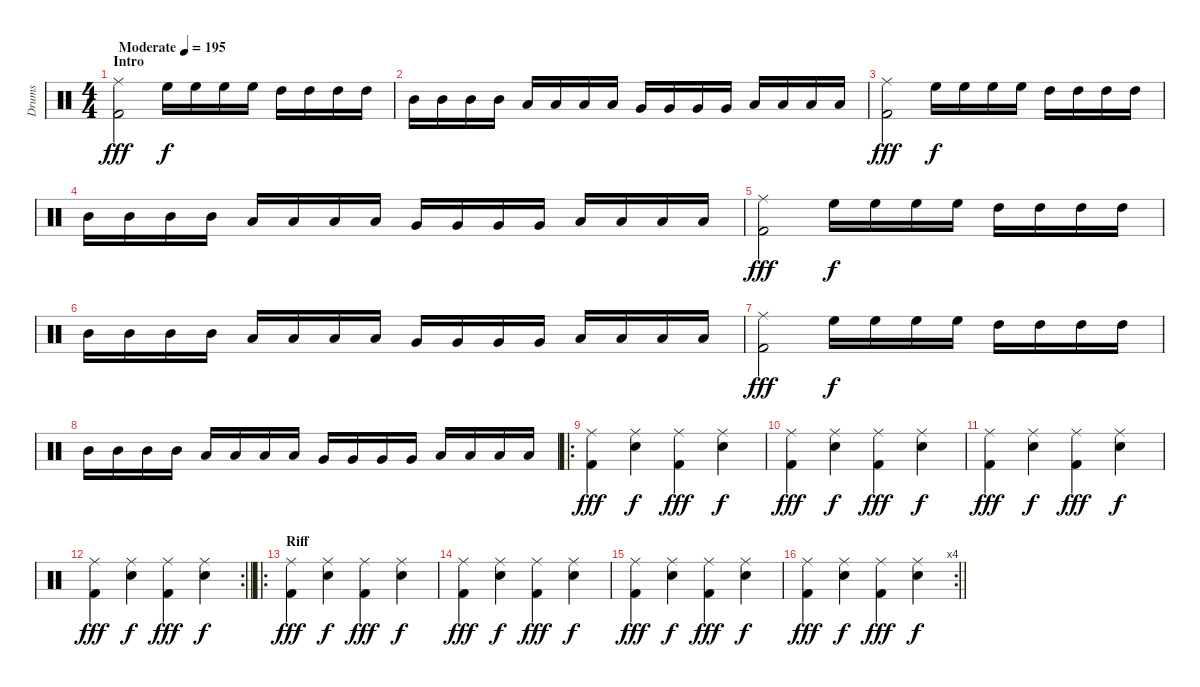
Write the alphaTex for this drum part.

\track ("Drums" "Drums") {instrument percussion}
\staff {score}
\articulation defaults
\ts (4 4)
\section ("" "Intro")
\tempo (195 "Moderate")
\clef neutral
\ks c
("Ride (middle)" "Kick (hit) 2").2{dy fff} "High Floor Tom (hit)".16{dy f} "High Floor Tom (hit)".16 "High Floor Tom (hit)".16 "High Floor Tom (hit)".16 "High Tom (hit)".16 "High Tom (hit)".16 "High Tom (hit)".16 "High Tom (hit)".16 |
"Mid Tom (hit)".16 "Mid Tom (hit)".16 "Mid Tom (hit)".16 "Mid Tom (hit)".16 "Low Tom (hit)".16 "Low Tom (hit)".16 "Low Tom (hit)".16 "Low Tom (hit)".16 "Very Low Tom (hit)".16 "Very Low Tom (hit)".16 "Very Low Tom (hit)".16 "Very Low Tom (hit)".16 "Low Floor Tom (hit)".16 "Low Floor Tom (hit)".16 "Low Floor Tom (hit)".16 "Low Floor Tom (hit)".16 |
("Ride (middle)" "Kick (hit) 2").2{dy fff} "High Floor Tom (hit)".16{dy f} "High Floor Tom (hit)".16 "High Floor Tom (hit)".16 "High Floor Tom (hit)".16 "High Tom (hit)".16 "High Tom (hit)".16 "High Tom (hit)".16 "High Tom (hit)".16 |
"Mid Tom (hit)".16 "Mid Tom (hit)".16 "Mid Tom (hit)".16 "Mid Tom (hit)".16 "Low Tom (hit)".16 "Low Tom (hit)".16 "Low Tom (hit)".16 "Low Tom (hit)".16 "Very Low Tom (hit)".16 "Very Low Tom (hit)".16 "Very Low Tom (hit)".16 "Very Low Tom (hit)".16 "Low Floor Tom (hit)".16 "Low Floor Tom (hit)".16 "Low Floor Tom (hit)".16 "Low Floor Tom (hit)".16 |
("Ride (middle)" "Kick (hit) 2").2{dy fff} "High Floor Tom (hit)".16{dy f} "High Floor Tom (hit)".16 "High Floor Tom (hit)".16 "High Floor Tom (hit)".16 "High Tom (hit)".16 "High Tom (hit)".16 "High Tom (hit)".16 "High Tom (hit)".16 |
"Mid Tom (hit)".16 "Mid Tom (hit)".16 "Mid Tom (hit)".16 "Mid Tom (hit)".16 "Low Tom (hit)".16 "Low Tom (hit)".16 "Low Tom (hit)".16 "Low Tom (hit)".16 "Very Low Tom (hit)".16 "Very Low Tom (hit)".16 "Very Low Tom (hit)".16 "Very Low Tom (hit)".16 "Low Floor Tom (hit)".16 "Low Floor Tom (hit)".16 "Low Floor Tom (hit)".16 "Low Floor Tom (hit)".16 |
("Ride (middle)" "Kick (hit) 2").2{dy fff} "High Floor Tom (hit)".16{dy f} "High Floor Tom (hit)".16 "High Floor Tom (hit)".16 "High Floor Tom (hit)".16 "High Tom (hit)".16 "High Tom (hit)".16 "High Tom (hit)".16 "High Tom (hit)".16 |
"Mid Tom (hit)".16 "Mid Tom (hit)".16 "Mid Tom (hit)".16 "Mid Tom (hit)".16 "Low Tom (hit)".16 "Low Tom (hit)".16 "Low Tom (hit)".16 "Low Tom (hit)".16 "Very Low Tom (hit)".16 "Very Low Tom (hit)".16 "Very Low Tom (hit)".16 "Very Low Tom (hit)".16 "Low Floor Tom (hit)".16 "Low Floor Tom (hit)".16 "Low Floor Tom (hit)".16 "Low Floor Tom (hit)".16 |
\ro
("Ride (middle)" "Kick (hit) 2").4{dy fff} ("Ride (middle)" "Snare (hit) 2").4{dy f} ("Ride (middle)" "Kick (hit) 2").4{dy fff} ("Ride (middle)" "Snare (hit) 2").4{dy f} |
("Ride (middle)" "Kick (hit) 2").4{dy fff} ("Ride (middle)" "Snare (hit) 2").4{dy f} ("Ride (middle)" "Kick (hit) 2").4{dy fff} ("Ride (middle)" "Snare (hit) 2").4{dy f} |
("Ride (middle)" "Kick (hit) 2").4{dy fff} ("Ride (middle)" "Snare (hit) 2").4{dy f} ("Ride (middle)" "Kick (hit) 2").4{dy fff} ("Ride (middle)" "Snare (hit) 2").4{dy f} |
\rc 2
\barLineRight lightlight
("Ride (middle)" "Kick (hit) 2").4{dy fff} ("Ride (middle)" "Snare (hit) 2").4{dy f} ("Ride (middle)" "Kick (hit) 2").4{dy fff} ("Ride (middle)" "Snare (hit) 2").4{dy f} |
\ro
\section ("" "Riff")
("Ride (middle)" "Kick (hit) 2").4{dy fff} ("Ride (middle)" "Snare (hit) 2").4{dy f} ("Ride (middle)" "Kick (hit) 2").4{dy fff} ("Ride (middle)" "Snare (hit) 2").4{dy f} |
("Ride (middle)" "Kick (hit) 2").4{dy fff} ("Ride (middle)" "Snare (hit) 2").4{dy f} ("Ride (middle)" "Kick (hit) 2").4{dy fff} ("Ride (middle)" "Snare (hit) 2").4{dy f} |
("Ride (middle)" "Kick (hit) 2").4{dy fff} ("Ride (middle)" "Snare (hit) 2").4{dy f} ("Ride (middle)" "Kick (hit) 2").4{dy fff} ("Ride (middle)" "Snare (hit) 2").4{dy f} |
\rc 4
\barLineRight lightlight
("Ride (middle)" "Kick (hit) 2").4{dy fff} ("Ride (middle)" "Snare (hit) 2").4{dy f} ("Ride (middle)" "Kick (hit) 2").4{dy fff} ("Ride (middle)" "Snare (hit) 2").4{dy f}
